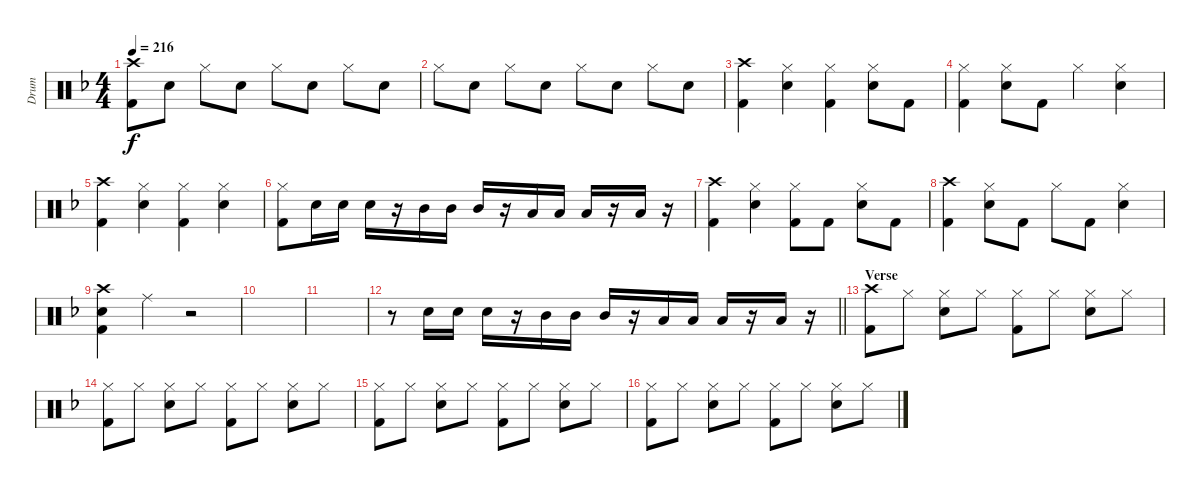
\track ("Drum" "Drum") {instrument percussion}
\staff {score}
\articulation defaults
\ts (4 4)
\tempo 216
\clef neutral
\ks f
("Crash high (hit)" "Kick (hit) 2").8{dy f} "Snare (hit) 2".8 "Hi-Hat (closed)".8 "Snare (hit) 2".8 "Hi-Hat (closed)".8 "Snare (hit) 2".8 "Hi-Hat (closed)".8 "Snare (hit) 2".8 |
"Hi-Hat (closed)".8 "Snare (hit) 2".8 "Hi-Hat (closed)".8 "Snare (hit) 2".8 "Hi-Hat (closed)".8 "Snare (hit) 2".8 "Hi-Hat (closed)".8 "Snare (hit) 2".8 |
("Crash high (hit)" "Kick (hit) 2").4 ("Hi-Hat (closed)" "Snare (hit) 2").4 ("Hi-Hat (closed)" "Kick (hit) 2").4 ("Hi-Hat (closed)" "Snare (hit) 2").8 "Kick (hit) 2".8 |
("Hi-Hat (closed)" "Kick (hit) 2").4 ("Hi-Hat (closed)" "Snare (hit) 2").8 "Kick (hit) 2".8 "Hi-Hat (closed)".4 ("Hi-Hat (closed)" "Snare (hit) 2").4 |
("Crash high (hit)" "Kick (hit) 2").4 ("Hi-Hat (closed)" "Snare (hit) 2").4 ("Hi-Hat (closed)" "Kick (hit) 2").4 ("Hi-Hat (closed)" "Snare (hit) 2").4 |
("Hi-Hat (closed)" "Kick (hit) 2").8 "Snare (hit) 2".16 "Snare (hit) 2".16 "Snare (hit) 2".16 r.16 "Mid Tom (hit)".16 "Mid Tom (hit)".16 "Mid Tom (hit)".16 r.16 "Low Floor Tom (hit)".16 "Low Floor Tom (hit)".16 "Low Floor Tom (hit)".16 r.16 "Low Floor Tom (hit)".16 r.16 |
("Crash high (hit)" "Kick (hit) 2").4 ("Hi-Hat (closed)" "Snare (hit) 2").4 ("Hi-Hat (closed)" "Kick (hit) 2").8 "Kick (hit) 2".8 ("Hi-Hat (closed)" "Snare (hit) 2").8 "Kick (hit) 2".8 |
("Crash high (hit)" "Kick (hit) 2").4 ("Hi-Hat (closed)" "Snare (hit) 2").8 "Kick (hit) 2".8 "Hi-Hat (closed)".8 "Kick (hit) 2".8 ("Hi-Hat (closed)" "Snare (hit) 2").4 |
("Crash high (hit)" "Snare (hit) 2" "Kick (hit) 2").4 "Ride (middle)".4 r.2 |
|
|
\barLineRight lightlight
r.8 "Snare (hit) 2".16 "Snare (hit) 2".16 "Snare (hit) 2".16 r.16 "Mid Tom (hit)".16 "Mid Tom (hit)".16 "Mid Tom (hit)".16 r.16 "Low Floor Tom (hit)".16 "Low Floor Tom (hit)".16 "Low Floor Tom (hit)".16 r.16 "Low Floor Tom (hit)".16 r.16 |
\section ("" "Verse")
("Crash high (hit)" "Kick (hit) 2").8 "Hi-Hat (closed)".8 ("Hi-Hat (closed)" "Snare (hit) 2").8 "Hi-Hat (closed)".8 ("Hi-Hat (closed)" "Kick (hit) 2").8 "Hi-Hat (closed)".8 ("Hi-Hat (closed)" "Snare (hit) 2").8 "Hi-Hat (closed)".8 |
("Hi-Hat (closed)" "Kick (hit) 2").8 "Hi-Hat (closed)".8 ("Hi-Hat (closed)" "Snare (hit) 2").8 "Hi-Hat (closed)".8 ("Hi-Hat (closed)" "Kick (hit) 2").8 "Hi-Hat (closed)".8 ("Hi-Hat (closed)" "Snare (hit) 2").8 "Hi-Hat (closed)".8 |
("Hi-Hat (closed)" "Kick (hit) 2").8 "Hi-Hat (closed)".8 ("Hi-Hat (closed)" "Snare (hit) 2").8 "Hi-Hat (closed)".8 ("Hi-Hat (closed)" "Kick (hit) 2").8 "Hi-Hat (closed)".8 ("Hi-Hat (closed)" "Snare (hit) 2").8 "Hi-Hat (closed)".8 |
("Hi-Hat (closed)" "Kick (hit) 2").8 "Hi-Hat (closed)".8 ("Hi-Hat (closed)" "Snare (hit) 2").8 "Hi-Hat (closed)".8 ("Hi-Hat (closed)" "Kick (hit) 2").8 "Hi-Hat (closed)".8 ("Hi-Hat (closed)" "Snare (hit) 2").8 "Hi-Hat (closed)".8
